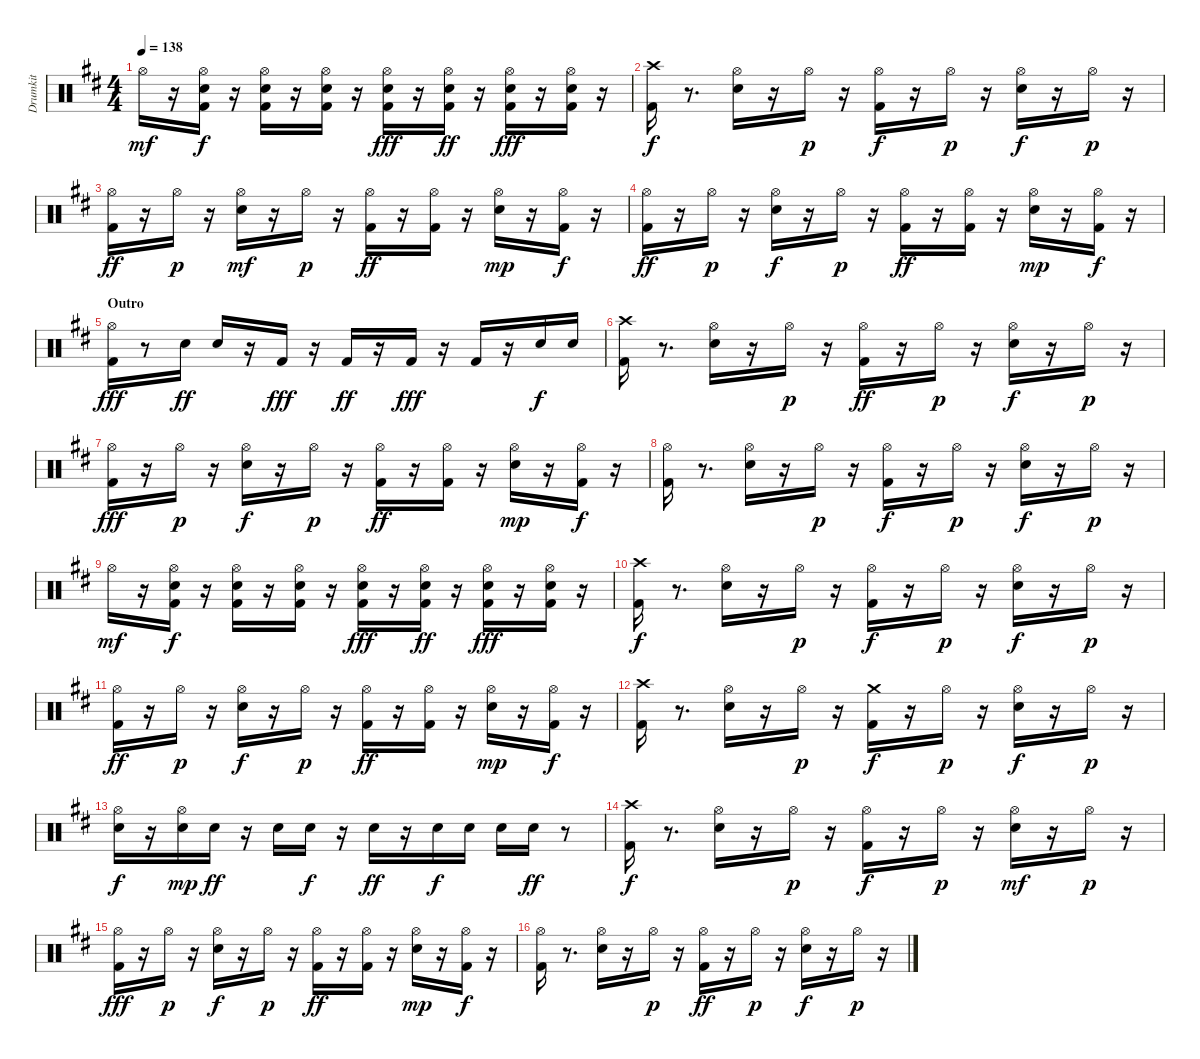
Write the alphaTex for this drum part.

\track ("Drumkit" "Drumkit") {instrument percussion}
\staff {score}
\articulation defaults
\ts (4 4)
\tempo 138
\clef neutral
\ks d "Hi-Hat (open)".16{dy mf}
r.16 ("Kick (hit) 2" "Snare (hit) 2" "Hi-Hat (open)").16{dy f} r.16 ("Kick (hit) 2" "Snare (hit) 2" "Hi-Hat (open)").16 r.16 ("Kick (hit) 2" "Snare (hit) 2" "Hi-Hat (open)").16 r.16 ("Kick (hit) 2" "Snare (hit) 2" "Hi-Hat (open)").16{dy fff} r.16 ("Kick (hit) 2" "Snare (hit) 2" "Hi-Hat (open)").16{dy ff} r.16 ("Kick (hit) 2" "Snare (hit) 2" "Hi-Hat (open)").16{dy fff} r.16 ("Kick (hit) 2" "Snare (hit) 2" "Hi-Hat (open)").16 r.16 |
("Kick (hit) 2" "Crash high (hit)").16{dy f} r.8{d} ("Snare (hit) 2" "Hi-Hat (open)").16 r.16 "Hi-Hat (open)".16{dy p} r.16 ("Kick (hit) 2" "Hi-Hat (open)").16{dy f} r.16 "Hi-Hat (open)".16{dy p} r.16 ("Snare (hit) 2" "Hi-Hat (open)").16{dy f} r.16 "Hi-Hat (open)".16{dy p} r.16 |
("Kick (hit) 2" "Hi-Hat (open)").16{dy ff} r.16 "Hi-Hat (open)".16{dy p} r.16 ("Snare (hit) 2" "Hi-Hat (open)").16{dy mf} r.16 "Hi-Hat (open)".16{dy p} r.16 ("Kick (hit) 2" "Hi-Hat (open)").16{dy ff} r.16 ("Kick (hit) 2" "Hi-Hat (open)").16 r.16 ("Snare (hit) 2" "Hi-Hat (open)").16{dy mp} r.16 ("Kick (hit) 2" "Hi-Hat (open)").16{dy f} r.16 |
("Kick (hit) 2" "Hi-Hat (open)").16{dy ff} r.16 "Hi-Hat (open)".16{dy p} r.16 ("Snare (hit) 2" "Hi-Hat (open)").16{dy f} r.16 "Hi-Hat (open)".16{dy p} r.16 ("Kick (hit) 2" "Hi-Hat (open)").16{dy ff} r.16 ("Kick (hit) 2" "Hi-Hat (open)").16 r.16 ("Snare (hit) 2" "Hi-Hat (open)").16{dy mp} r.16 ("Kick (hit) 2" "Hi-Hat (open)").16{dy f} r.16 |
\section ("" "Outro")
("Kick (hit) 2" "Hi-Hat (open)").16{dy fff} r.8 "Snare (hit) 2".16{dy ff} "Snare (hit) 2".16 r.16 "Kick (hit) 2".16{dy fff} r.16 "Kick (hit) 2".16{dy ff} r.16 "Kick (hit) 2".16{dy fff} r.16 "Kick (hit) 2".16 r.16 "Snare (hit) 2".16{dy f} "Snare (hit) 2".16 |
("Kick (hit) 2" "Crash high (hit)").16 r.8{d} ("Snare (hit) 2" "Hi-Hat (open)").16 r.16 "Hi-Hat (open)".16{dy p} r.16 ("Kick (hit) 2" "Hi-Hat (open)").16{dy ff} r.16 "Hi-Hat (open)".16{dy p} r.16 ("Snare (hit) 2" "Hi-Hat (open)").16{dy f} r.16 "Hi-Hat (open)".16{dy p} r.16 |
("Kick (hit) 2" "Hi-Hat (open)").16{dy fff} r.16 "Hi-Hat (open)".16{dy p} r.16 ("Snare (hit) 2" "Hi-Hat (open)").16{dy f} r.16 "Hi-Hat (open)".16{dy p} r.16 ("Kick (hit) 2" "Hi-Hat (open)").16{dy ff} r.16 ("Kick (hit) 2" "Hi-Hat (open)").16 r.16 ("Snare (hit) 2" "Hi-Hat (open)").16{dy mp} r.16 ("Kick (hit) 2" "Hi-Hat (open)").16{dy f} r.16 |
("Kick (hit) 2" "Hi-Hat (open)").16 r.8{d} ("Snare (hit) 2" "Hi-Hat (open)").16 r.16 "Hi-Hat (open)".16{dy p} r.16 ("Kick (hit) 2" "Hi-Hat (open)").16{dy f} r.16 "Hi-Hat (open)".16{dy p} r.16 ("Snare (hit) 2" "Hi-Hat (open)").16{dy f} r.16 "Hi-Hat (open)".16{dy p} r.16 |
"Hi-Hat (open)".16{dy mf} r.16 ("Kick (hit) 2" "Snare (hit) 2" "Hi-Hat (open)").16{dy f} r.16 ("Kick (hit) 2" "Snare (hit) 2" "Hi-Hat (open)").16 r.16 ("Kick (hit) 2" "Snare (hit) 2" "Hi-Hat (open)").16 r.16 ("Kick (hit) 2" "Snare (hit) 2" "Hi-Hat (open)").16{dy fff} r.16 ("Kick (hit) 2" "Snare (hit) 2" "Hi-Hat (open)").16{dy ff} r.16 ("Kick (hit) 2" "Snare (hit) 2" "Hi-Hat (open)").16{dy fff} r.16 ("Kick (hit) 2" "Snare (hit) 2" "Hi-Hat (open)").16 r.16 |
("Kick (hit) 2" "Crash high (hit)").16{dy f} r.8{d} ("Snare (hit) 2" "Hi-Hat (open)").16 r.16 "Hi-Hat (open)".16{dy p} r.16 ("Kick (hit) 2" "Hi-Hat (open)").16{dy f} r.16 "Hi-Hat (open)".16{dy p} r.16 ("Snare (hit) 2" "Hi-Hat (open)").16{dy f} r.16 "Hi-Hat (open)".16{dy p} r.16 |
("Kick (hit) 2" "Hi-Hat (open)").16{dy ff} r.16 "Hi-Hat (open)".16{dy p} r.16 ("Snare (hit) 2" "Hi-Hat (open)").16{dy f} r.16 "Hi-Hat (open)".16{dy p} r.16 ("Kick (hit) 2" "Hi-Hat (open)").16{dy ff} r.16 ("Kick (hit) 2" "Hi-Hat (open)").16 r.16 ("Snare (hit) 2" "Hi-Hat (open)").16{dy mp} r.16 ("Kick (hit) 2" "Hi-Hat (open)").16{dy f} r.16 |
("Kick (hit) 2" "Crash high (hit)").16 r.8{d} ("Snare (hit) 2" "Hi-Hat (open)").16 r.16 "Hi-Hat (open)".16{dy p} r.16 ("Kick (hit) 2" "Crash medium (hit)").16{dy f} r.16 "Hi-Hat (open)".16{dy p} r.16 ("Snare (hit) 2" "Hi-Hat (open)").16{dy f} r.16 "Hi-Hat (open)".16{dy p} r.16 |
("Snare (hit) 2" "Hi-Hat (open)").16{dy f} r.16 ("Snare (hit) 2" "Hi-Hat (open)").16{dy mp} "Snare (hit) 2".16{dy ff} r.16 "Snare (hit) 2".16 "Snare (hit) 2".16{dy f} r.16 "Snare (hit) 2".16{dy ff} r.16 "Snare (hit) 2".16{dy f} "Snare (hit) 2".16 "Snare (hit) 2".16 "Snare (hit) 2".16{dy ff} r.8 |
("Kick (hit) 2" "Crash high (hit)").16{dy f} r.8{d} ("Snare (hit) 2" "Hi-Hat (open)").16 r.16 "Hi-Hat (open)".16{dy p} r.16 ("Kick (hit) 2" "Hi-Hat (open)").16{dy f} r.16 "Hi-Hat (open)".16{dy p} r.16 ("Snare (hit) 2" "Hi-Hat (open)").16{dy mf} r.16 "Hi-Hat (open)".16{dy p} r.16 |
("Kick (hit) 2" "Hi-Hat (open)").16{dy fff} r.16 "Hi-Hat (open)".16{dy p} r.16 ("Snare (hit) 2" "Hi-Hat (open)").16{dy f} r.16 "Hi-Hat (open)".16{dy p} r.16 ("Kick (hit) 2" "Hi-Hat (open)").16{dy ff} r.16 ("Kick (hit) 2" "Hi-Hat (open)").16 r.16 ("Snare (hit) 2" "Hi-Hat (open)").16{dy mp} r.16 ("Kick (hit) 2" "Hi-Hat (open)").16{dy f} r.16 |
("Kick (hit) 2" "Hi-Hat (open)").16 r.8{d} ("Snare (hit) 2" "Hi-Hat (open)").16 r.16 "Hi-Hat (open)".16{dy p} r.16 ("Kick (hit) 2" "Hi-Hat (open)").16{dy ff} r.16 "Hi-Hat (open)".16{dy p} r.16 ("Snare (hit) 2" "Hi-Hat (open)").16{dy f} r.16 "Hi-Hat (open)".16{dy p} r.16
